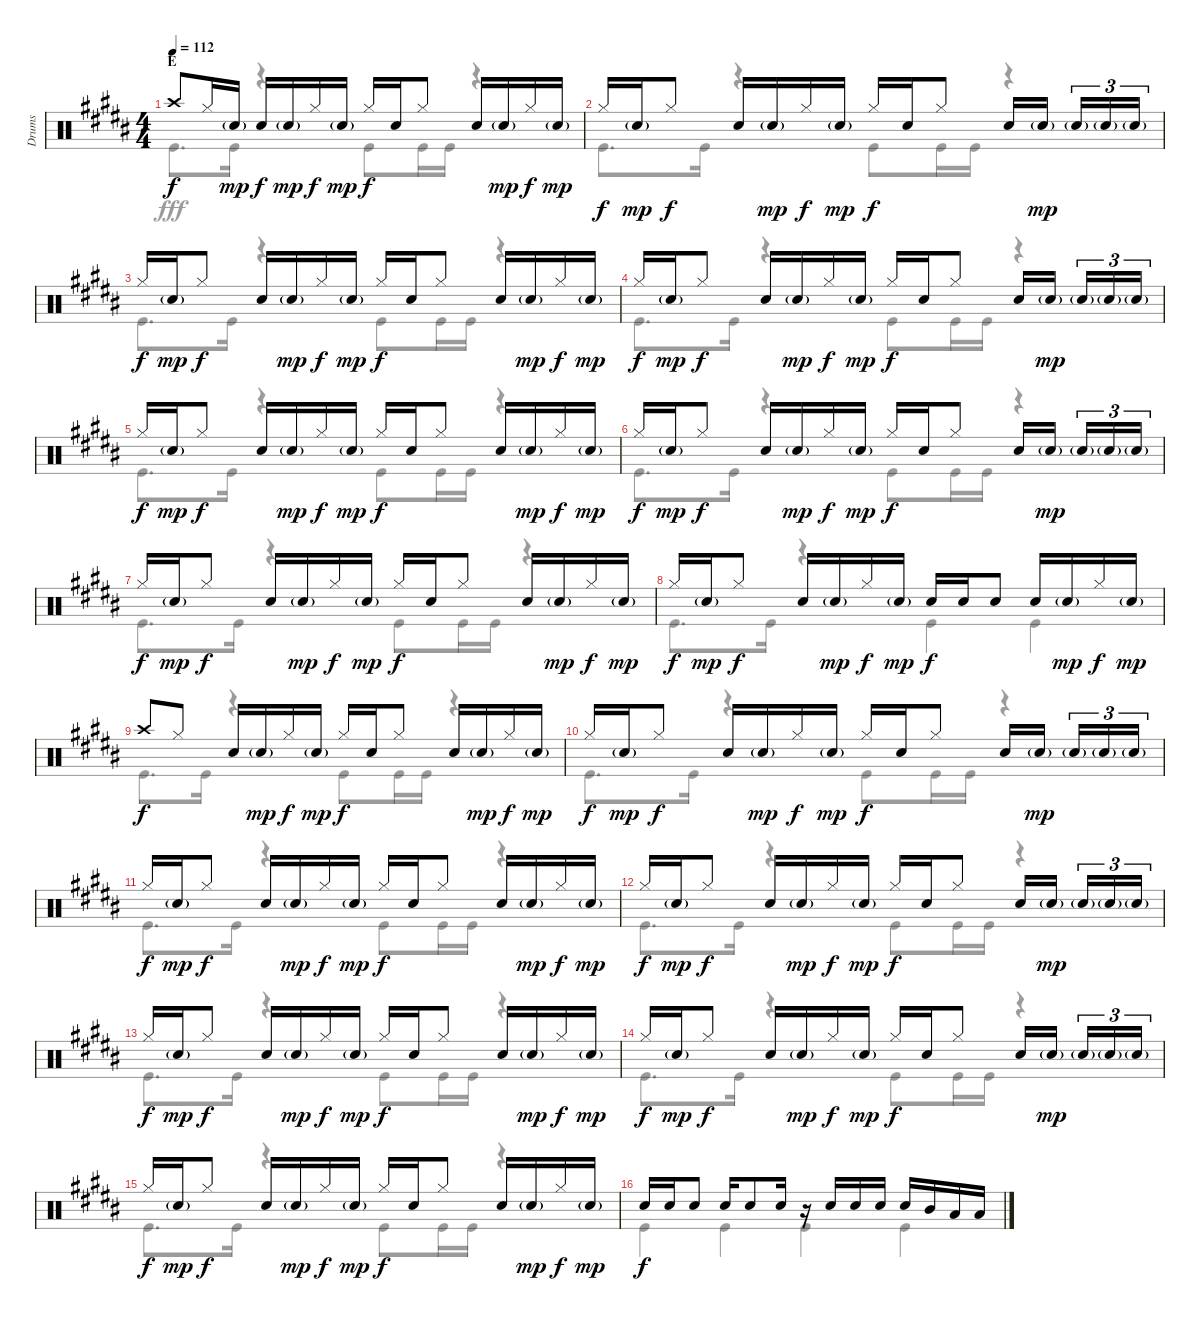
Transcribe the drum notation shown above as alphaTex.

\track ("Drums" "Drums") {instrument percussion}
\staff {score}
\articulation defaults
\voice
\ts (4 4)
\section ("" "E")
\tempo 112
\clef neutral
\ks b "Crash high (hit)".8{dy f} "Hi-Hat (closed)".16 "Snare (hit) 2"{g}.16{dy mp} "Snare (hit) 2".16{dy f} "Snare (hit) 2"{g}.16{dy mp} "Hi-Hat (closed)".16{dy f} "Snare (hit) 2"{g}.16{dy mp} "Hi-Hat (closed)".16{dy f} "Snare (hit) 2".16 "Hi-Hat (closed)".8 "Snare (hit) 2".16 "Snare (hit) 2"{g}.16{dy mp} "Hi-Hat (closed)".16{dy f} "Snare (hit) 2"{g}.16{dy mp}
|
"Hi-Hat (closed)".16{dy f} "Snare (hit) 2"{g}.16{dy mp} "Hi-Hat (closed)".8{dy f} "Snare (hit) 2".16 "Snare (hit) 2"{g}.16{dy mp} "Hi-Hat (closed)".16{dy f} "Snare (hit) 2"{g}.16{dy mp} "Hi-Hat (closed)".16{dy f} "Snare (hit) 2".16 "Hi-Hat (closed)".8 "Snare (hit) 2".16 "Snare (hit) 2"{g}.16{dy mp beam splitsecondary} "Snare (hit) 2"{g}.16{tu (3 2)} "Snare (hit) 2"{g}.16{tu (3 2)} "Snare (hit) 2"{g}.16{tu (3 2)} |
"Hi-Hat (closed)".16{dy f} "Snare (hit) 2"{g}.16{dy mp} "Hi-Hat (closed)".8{dy f} "Snare (hit) 2".16 "Snare (hit) 2"{g}.16{dy mp} "Hi-Hat (closed)".16{dy f} "Snare (hit) 2"{g}.16{dy mp} "Hi-Hat (closed)".16{dy f} "Snare (hit) 2".16 "Hi-Hat (closed)".8 "Snare (hit) 2".16 "Snare (hit) 2"{g}.16{dy mp} "Hi-Hat (closed)".16{dy f} "Snare (hit) 2"{g}.16{dy mp} |
"Hi-Hat (closed)".16{dy f} "Snare (hit) 2"{g}.16{dy mp} "Hi-Hat (closed)".8{dy f} "Snare (hit) 2".16 "Snare (hit) 2"{g}.16{dy mp} "Hi-Hat (closed)".16{dy f} "Snare (hit) 2"{g}.16{dy mp} "Hi-Hat (closed)".16{dy f} "Snare (hit) 2".16 "Hi-Hat (closed)".8 "Snare (hit) 2".16 "Snare (hit) 2"{g}.16{dy mp beam splitsecondary} "Snare (hit) 2"{g}.16{tu (3 2)} "Snare (hit) 2"{g}.16{tu (3 2)} "Snare (hit) 2"{g}.16{tu (3 2)} |
"Hi-Hat (closed)".16{dy f} "Snare (hit) 2"{g}.16{dy mp} "Hi-Hat (closed)".8{dy f} "Snare (hit) 2".16 "Snare (hit) 2"{g}.16{dy mp} "Hi-Hat (closed)".16{dy f} "Snare (hit) 2"{g}.16{dy mp} "Hi-Hat (closed)".16{dy f} "Snare (hit) 2".16 "Hi-Hat (closed)".8 "Snare (hit) 2".16 "Snare (hit) 2"{g}.16{dy mp} "Hi-Hat (closed)".16{dy f} "Snare (hit) 2"{g}.16{dy mp} |
"Hi-Hat (closed)".16{dy f} "Snare (hit) 2"{g}.16{dy mp} "Hi-Hat (closed)".8{dy f} "Snare (hit) 2".16 "Snare (hit) 2"{g}.16{dy mp} "Hi-Hat (closed)".16{dy f} "Snare (hit) 2"{g}.16{dy mp} "Hi-Hat (closed)".16{dy f} "Snare (hit) 2".16 "Hi-Hat (closed)".8 "Snare (hit) 2".16 "Snare (hit) 2"{g}.16{dy mp beam splitsecondary} "Snare (hit) 2"{g}.16{tu (3 2)} "Snare (hit) 2"{g}.16{tu (3 2)} "Snare (hit) 2"{g}.16{tu (3 2)} |
"Hi-Hat (closed)".16{dy f} "Snare (hit) 2"{g}.16{dy mp} "Hi-Hat (closed)".8{dy f} "Snare (hit) 2".16 "Snare (hit) 2"{g}.16{dy mp} "Hi-Hat (closed)".16{dy f} "Snare (hit) 2"{g}.16{dy mp} "Hi-Hat (closed)".16{dy f} "Snare (hit) 2".16 "Hi-Hat (closed)".8 "Snare (hit) 2".16 "Snare (hit) 2"{g}.16{dy mp} "Hi-Hat (closed)".16{dy f} "Snare (hit) 2"{g}.16{dy mp} |
"Hi-Hat (closed)".16{dy f} "Snare (hit) 2"{g}.16{dy mp} "Hi-Hat (closed)".8{dy f} "Snare (hit) 2".16 "Snare (hit) 2"{g}.16{dy mp} "Hi-Hat (closed)".16{dy f} "Snare (hit) 2"{g}.16{dy mp} "Snare (hit) 2".16{dy f} "Snare (hit) 2".16 "Snare (hit) 2".8 "Snare (hit) 2".16 "Snare (hit) 2"{g}.16{dy mp} "Hi-Hat (closed)".16{dy f} "Snare (hit) 2"{g}.16{dy mp} |
"Crash high (hit)".8{dy f} "Hi-Hat (closed)".8 "Snare (hit) 2".16 "Snare (hit) 2"{g}.16{dy mp} "Hi-Hat (closed)".16{dy f} "Snare (hit) 2"{g}.16{dy mp} "Hi-Hat (closed)".16{dy f} "Snare (hit) 2".16 "Hi-Hat (closed)".8 "Snare (hit) 2".16 "Snare (hit) 2"{g}.16{dy mp} "Hi-Hat (closed)".16{dy f} "Snare (hit) 2"{g}.16{dy mp} |
"Hi-Hat (closed)".16{dy f} "Snare (hit) 2"{g}.16{dy mp} "Hi-Hat (closed)".8{dy f} "Snare (hit) 2".16 "Snare (hit) 2"{g}.16{dy mp} "Hi-Hat (closed)".16{dy f} "Snare (hit) 2"{g}.16{dy mp} "Hi-Hat (closed)".16{dy f} "Snare (hit) 2".16 "Hi-Hat (closed)".8 "Snare (hit) 2".16 "Snare (hit) 2"{g}.16{dy mp beam splitsecondary} "Snare (hit) 2"{g}.16{tu (3 2)} "Snare (hit) 2"{g}.16{tu (3 2)} "Snare (hit) 2"{g}.16{tu (3 2)} |
"Hi-Hat (closed)".16{dy f} "Snare (hit) 2"{g}.16{dy mp} "Hi-Hat (closed)".8{dy f} "Snare (hit) 2".16 "Snare (hit) 2"{g}.16{dy mp} "Hi-Hat (closed)".16{dy f} "Snare (hit) 2"{g}.16{dy mp} "Hi-Hat (closed)".16{dy f} "Snare (hit) 2".16 "Hi-Hat (closed)".8 "Snare (hit) 2".16 "Snare (hit) 2"{g}.16{dy mp} "Hi-Hat (closed)".16{dy f} "Snare (hit) 2"{g}.16{dy mp} |
"Hi-Hat (closed)".16{dy f} "Snare (hit) 2"{g}.16{dy mp} "Hi-Hat (closed)".8{dy f} "Snare (hit) 2".16 "Snare (hit) 2"{g}.16{dy mp} "Hi-Hat (closed)".16{dy f} "Snare (hit) 2"{g}.16{dy mp} "Hi-Hat (closed)".16{dy f} "Snare (hit) 2".16 "Hi-Hat (closed)".8 "Snare (hit) 2".16 "Snare (hit) 2"{g}.16{dy mp beam splitsecondary} "Snare (hit) 2"{g}.16{tu (3 2)} "Snare (hit) 2"{g}.16{tu (3 2)} "Snare (hit) 2"{g}.16{tu (3 2)} |
"Hi-Hat (closed)".16{dy f} "Snare (hit) 2"{g}.16{dy mp} "Hi-Hat (closed)".8{dy f} "Snare (hit) 2".16 "Snare (hit) 2"{g}.16{dy mp} "Hi-Hat (closed)".16{dy f} "Snare (hit) 2"{g}.16{dy mp} "Hi-Hat (closed)".16{dy f} "Snare (hit) 2".16 "Hi-Hat (closed)".8 "Snare (hit) 2".16 "Snare (hit) 2"{g}.16{dy mp} "Hi-Hat (closed)".16{dy f} "Snare (hit) 2"{g}.16{dy mp} |
"Hi-Hat (closed)".16{dy f} "Snare (hit) 2"{g}.16{dy mp} "Hi-Hat (closed)".8{dy f} "Snare (hit) 2".16 "Snare (hit) 2"{g}.16{dy mp} "Hi-Hat (closed)".16{dy f} "Snare (hit) 2"{g}.16{dy mp} "Hi-Hat (closed)".16{dy f} "Snare (hit) 2".16 "Hi-Hat (closed)".8 "Snare (hit) 2".16 "Snare (hit) 2"{g}.16{dy mp beam splitsecondary} "Snare (hit) 2"{g}.16{tu (3 2)} "Snare (hit) 2"{g}.16{tu (3 2)} "Snare (hit) 2"{g}.16{tu (3 2)} |
"Hi-Hat (closed)".16{dy f} "Snare (hit) 2"{g}.16{dy mp} "Hi-Hat (closed)".8{dy f} "Snare (hit) 2".16 "Snare (hit) 2"{g}.16{dy mp} "Hi-Hat (closed)".16{dy f} "Snare (hit) 2"{g}.16{dy mp} "Hi-Hat (closed)".16{dy f} "Snare (hit) 2".16 "Hi-Hat (closed)".8 "Snare (hit) 2".16 "Snare (hit) 2"{g}.16{dy mp} "Hi-Hat (closed)".16{dy f} "Snare (hit) 2"{g}.16{dy mp} |
"Snare (hit) 2".16{dy f} "Snare (hit) 2".16 "Snare (hit) 2".8 "Snare (hit) 2".16 "Snare (hit) 2".8 "Snare (hit) 2".16 r.16 "Snare (hit) 2".16 "Snare (hit) 2".16 "Snare (hit) 2".16 "Snare (hit) 2".16 "Mid Tom (hit)".16 "Low Tom (hit)".16 "Low Tom (hit)".16
\voice
\clef neutral
\ottava regular
\simile none
\ks b "Kick (hit)".8{d dy fff} "Kick (hit)".16
r.4 "Kick (hit)".8 "Kick (hit)".16 "Kick (hit)".16 r.4 |
"Kick (hit)".8{d} "Kick (hit)".16 r.4 "Kick (hit)".8 "Kick (hit)".16 "Kick (hit)".16 r.4 |
"Kick (hit)".8{d} "Kick (hit)".16 r.4 "Kick (hit)".8 "Kick (hit)".16 "Kick (hit)".16 r.4 |
"Kick (hit)".8{d} "Kick (hit)".16 r.4 "Kick (hit)".8 "Kick (hit)".16 "Kick (hit)".16 r.4 |
"Kick (hit)".8{d} "Kick (hit)".16 r.4 "Kick (hit)".8 "Kick (hit)".16 "Kick (hit)".16 r.4 |
"Kick (hit)".8{d} "Kick (hit)".16 r.4 "Kick (hit)".8 "Kick (hit)".16 "Kick (hit)".16 r.4 |
"Kick (hit)".8{d} "Kick (hit)".16 r.4 "Kick (hit)".8 "Kick (hit)".16 "Kick (hit)".16 r.4 |
"Kick (hit)".8{d} "Kick (hit)".16 r.4 "Kick (hit)".4 "Kick (hit)".4 |
"Kick (hit)".8{d} "Kick (hit)".16 r.4 "Kick (hit)".8 "Kick (hit)".16 "Kick (hit)".16 r.4 |
"Kick (hit)".8{d} "Kick (hit)".16 r.4 "Kick (hit)".8 "Kick (hit)".16 "Kick (hit)".16 r.4 |
"Kick (hit)".8{d} "Kick (hit)".16 r.4 "Kick (hit)".8 "Kick (hit)".16 "Kick (hit)".16 r.4 |
"Kick (hit)".8{d} "Kick (hit)".16 r.4 "Kick (hit)".8 "Kick (hit)".16 "Kick (hit)".16 r.4 |
"Kick (hit)".8{d} "Kick (hit)".16 r.4 "Kick (hit)".8 "Kick (hit)".16 "Kick (hit)".16 r.4 |
"Kick (hit)".8{d} "Kick (hit)".16 r.4 "Kick (hit)".8 "Kick (hit)".16 "Kick (hit)".16 r.4 |
"Kick (hit)".8{d} "Kick (hit)".16 r.4 "Kick (hit)".8 "Kick (hit)".16 "Kick (hit)".16 r.4 |
"Kick (hit)".4 "Kick (hit)".4 "Kick (hit)".4 "Kick (hit)".4
